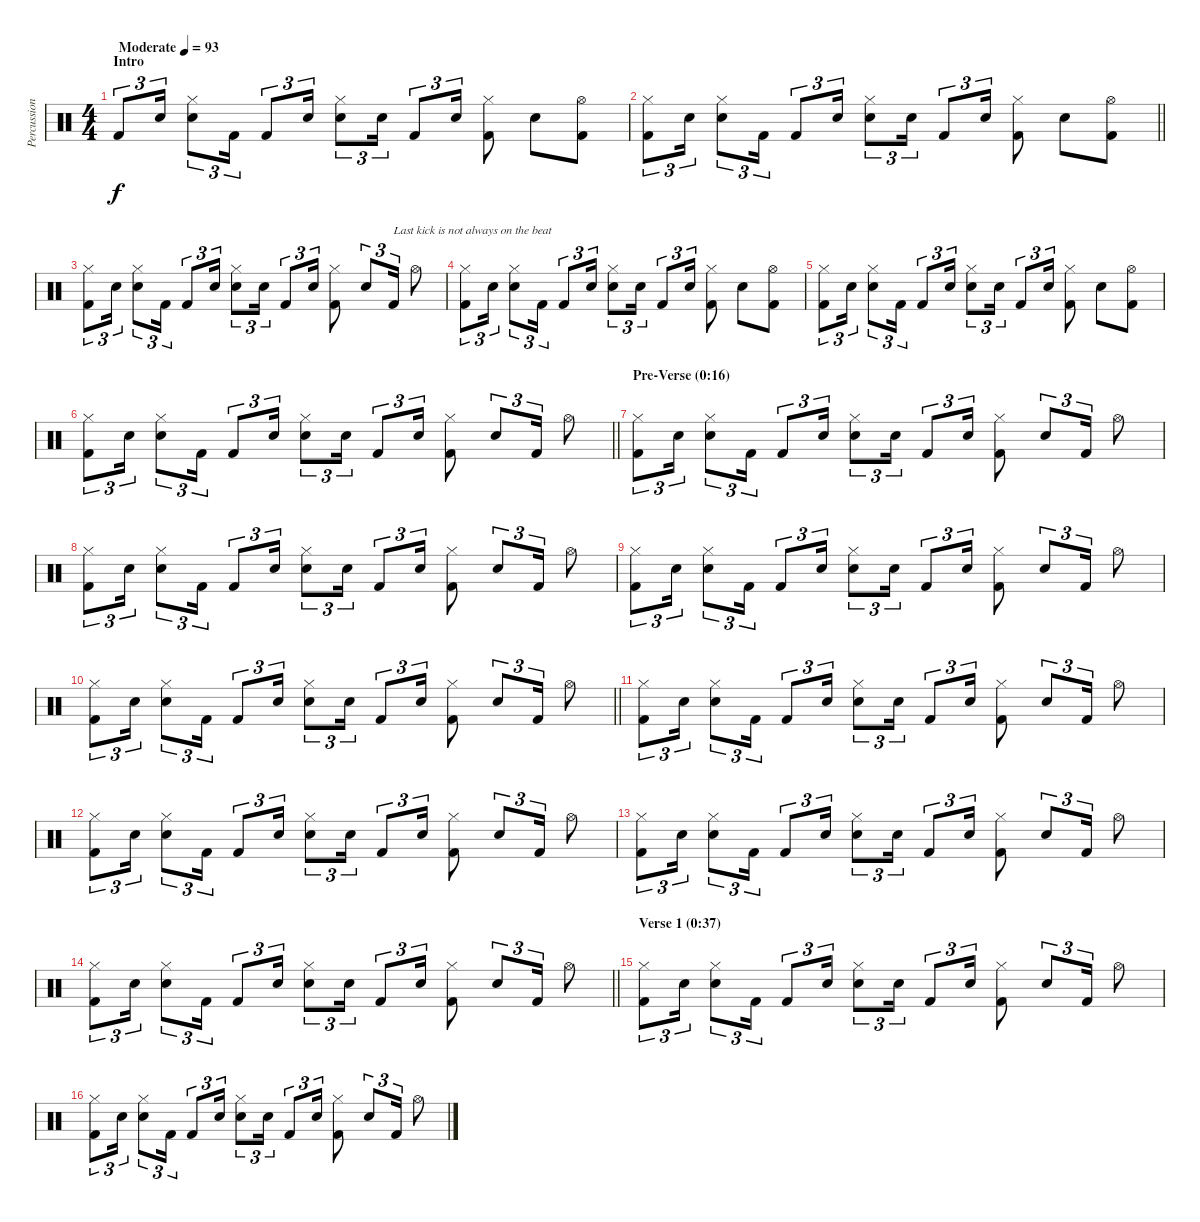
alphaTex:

\track ("Percussion" "Percussion") {instrument percussion}
\staff {score}
\articulation defaults
\ts (4 4)
\section ("" "Intro")
\tempo (93 "Moderate")
\clef neutral
\ks c "Kick (hit) 2".8{tu (3 2) dy f} "Electric Snare (hit)".16{tu (3 2)}
("Hi-Hat (closed)" "Electric Snare (hit)").8{tu (3 2)} "Kick (hit) 2".16{tu (3 2)} "Kick (hit) 2".8{tu (3 2)} "Electric Snare (hit)".16{tu (3 2)} ("Hi-Hat (closed)" "Electric Snare (hit)").8{tu (3 2)} "Electric Snare (hit)".16{tu (3 2)} "Kick (hit) 2".8{tu (3 2)} "Electric Snare (hit)".16{tu (3 2)} ("Hi-Hat (closed)" "Kick (hit) 2").8 "Electric Snare (hit)".8 ("Hi-Hat (open)" "Kick (hit) 2").8 |
\barLineRight lightlight
("Hi-Hat (closed)" "Kick (hit) 2").8{tu (3 2)} "Electric Snare (hit)".16{tu (3 2)} ("Hi-Hat (closed)" "Electric Snare (hit)").8{tu (3 2)} "Kick (hit) 2".16{tu (3 2)} "Kick (hit) 2".8{tu (3 2)} "Electric Snare (hit)".16{tu (3 2)} ("Hi-Hat (closed)" "Electric Snare (hit)").8{tu (3 2)} "Electric Snare (hit)".16{tu (3 2)} "Kick (hit) 2".8{tu (3 2)} "Electric Snare (hit)".16{tu (3 2)} ("Hi-Hat (closed)" "Kick (hit) 2").8 "Electric Snare (hit)".8 ("Hi-Hat (open)" "Kick (hit) 2").8 |
("Hi-Hat (closed)" "Kick (hit) 2").8{tu (3 2)} "Electric Snare (hit)".16{tu (3 2)} ("Hi-Hat (closed)" "Electric Snare (hit)").8{tu (3 2)} "Kick (hit) 2".16{tu (3 2)} "Kick (hit) 2".8{tu (3 2)} "Electric Snare (hit)".16{tu (3 2)} ("Hi-Hat (closed)" "Electric Snare (hit)").8{tu (3 2)} "Electric Snare (hit)".16{tu (3 2)} "Kick (hit) 2".8{tu (3 2)} "Electric Snare (hit)".16{tu (3 2)} ("Hi-Hat (closed)" "Kick (hit) 2").8 "Electric Snare (hit)".8{tu (3 2)} "Kick (hit) 2".16{tu (3 2) txt "Last kick is not always on the beat"} "Hi-Hat (open)".8 |
("Hi-Hat (closed)" "Kick (hit) 2").8{tu (3 2)} "Electric Snare (hit)".16{tu (3 2)} ("Hi-Hat (closed)" "Electric Snare (hit)").8{tu (3 2)} "Kick (hit) 2".16{tu (3 2)} "Kick (hit) 2".8{tu (3 2)} "Electric Snare (hit)".16{tu (3 2)} ("Hi-Hat (closed)" "Electric Snare (hit)").8{tu (3 2)} "Electric Snare (hit)".16{tu (3 2)} "Kick (hit) 2".8{tu (3 2)} "Electric Snare (hit)".16{tu (3 2)} ("Hi-Hat (closed)" "Kick (hit) 2").8 "Electric Snare (hit)".8 ("Hi-Hat (open)" "Kick (hit) 2").8 |
("Hi-Hat (closed)" "Kick (hit) 2").8{tu (3 2)} "Electric Snare (hit)".16{tu (3 2)} ("Hi-Hat (closed)" "Electric Snare (hit)").8{tu (3 2)} "Kick (hit) 2".16{tu (3 2)} "Kick (hit) 2".8{tu (3 2)} "Electric Snare (hit)".16{tu (3 2)} ("Hi-Hat (closed)" "Electric Snare (hit)").8{tu (3 2)} "Electric Snare (hit)".16{tu (3 2)} "Kick (hit) 2".8{tu (3 2)} "Electric Snare (hit)".16{tu (3 2)} ("Hi-Hat (closed)" "Kick (hit) 2").8 "Electric Snare (hit)".8 ("Hi-Hat (open)" "Kick (hit) 2").8 |
\barLineRight lightlight
("Hi-Hat (closed)" "Kick (hit) 2").8{tu (3 2)} "Electric Snare (hit)".16{tu (3 2)} ("Hi-Hat (closed)" "Electric Snare (hit)").8{tu (3 2)} "Kick (hit) 2".16{tu (3 2)} "Kick (hit) 2".8{tu (3 2)} "Electric Snare (hit)".16{tu (3 2)} ("Hi-Hat (closed)" "Electric Snare (hit)").8{tu (3 2)} "Electric Snare (hit)".16{tu (3 2)} "Kick (hit) 2".8{tu (3 2)} "Electric Snare (hit)".16{tu (3 2)} ("Hi-Hat (closed)" "Kick (hit) 2").8 "Electric Snare (hit)".8{tu (3 2)} "Kick (hit) 2".16{tu (3 2)} "Hi-Hat (open)".8 |
\section ("" "Pre-Verse (0:16)")
("Hi-Hat (closed)" "Kick (hit) 2").8{tu (3 2)} "Electric Snare (hit)".16{tu (3 2)} ("Hi-Hat (closed)" "Electric Snare (hit)").8{tu (3 2)} "Kick (hit) 2".16{tu (3 2)} "Kick (hit) 2".8{tu (3 2)} "Electric Snare (hit)".16{tu (3 2)} ("Hi-Hat (closed)" "Electric Snare (hit)").8{tu (3 2)} "Electric Snare (hit)".16{tu (3 2)} "Kick (hit) 2".8{tu (3 2)} "Electric Snare (hit)".16{tu (3 2)} ("Hi-Hat (closed)" "Kick (hit) 2").8 "Electric Snare (hit)".8{tu (3 2)} "Kick (hit) 2".16{tu (3 2)} "Hi-Hat (open)".8 |
("Hi-Hat (closed)" "Kick (hit) 2").8{tu (3 2)} "Electric Snare (hit)".16{tu (3 2)} ("Hi-Hat (closed)" "Electric Snare (hit)").8{tu (3 2)} "Kick (hit) 2".16{tu (3 2)} "Kick (hit) 2".8{tu (3 2)} "Electric Snare (hit)".16{tu (3 2)} ("Hi-Hat (closed)" "Electric Snare (hit)").8{tu (3 2)} "Electric Snare (hit)".16{tu (3 2)} "Kick (hit) 2".8{tu (3 2)} "Electric Snare (hit)".16{tu (3 2)} ("Hi-Hat (closed)" "Kick (hit) 2").8 "Electric Snare (hit)".8{tu (3 2)} "Kick (hit) 2".16{tu (3 2)} "Hi-Hat (open)".8 |
("Hi-Hat (closed)" "Kick (hit) 2").8{tu (3 2)} "Electric Snare (hit)".16{tu (3 2)} ("Hi-Hat (closed)" "Electric Snare (hit)").8{tu (3 2)} "Kick (hit) 2".16{tu (3 2)} "Kick (hit) 2".8{tu (3 2)} "Electric Snare (hit)".16{tu (3 2)} ("Hi-Hat (closed)" "Electric Snare (hit)").8{tu (3 2)} "Electric Snare (hit)".16{tu (3 2)} "Kick (hit) 2".8{tu (3 2)} "Electric Snare (hit)".16{tu (3 2)} ("Hi-Hat (closed)" "Kick (hit) 2").8 "Electric Snare (hit)".8{tu (3 2)} "Kick (hit) 2".16{tu (3 2)} "Hi-Hat (open)".8 |
\barLineRight lightlight
("Hi-Hat (closed)" "Kick (hit) 2").8{tu (3 2)} "Electric Snare (hit)".16{tu (3 2)} ("Hi-Hat (closed)" "Electric Snare (hit)").8{tu (3 2)} "Kick (hit) 2".16{tu (3 2)} "Kick (hit) 2".8{tu (3 2)} "Electric Snare (hit)".16{tu (3 2)} ("Hi-Hat (closed)" "Electric Snare (hit)").8{tu (3 2)} "Electric Snare (hit)".16{tu (3 2)} "Kick (hit) 2".8{tu (3 2)} "Electric Snare (hit)".16{tu (3 2)} ("Hi-Hat (closed)" "Kick (hit) 2").8 "Electric Snare (hit)".8{tu (3 2)} "Kick (hit) 2".16{tu (3 2)} "Hi-Hat (open)".8 |
("Hi-Hat (closed)" "Kick (hit) 2").8{tu (3 2)} "Electric Snare (hit)".16{tu (3 2)} ("Hi-Hat (closed)" "Electric Snare (hit)").8{tu (3 2)} "Kick (hit) 2".16{tu (3 2)} "Kick (hit) 2".8{tu (3 2)} "Electric Snare (hit)".16{tu (3 2)} ("Hi-Hat (closed)" "Electric Snare (hit)").8{tu (3 2)} "Electric Snare (hit)".16{tu (3 2)} "Kick (hit) 2".8{tu (3 2)} "Electric Snare (hit)".16{tu (3 2)} ("Hi-Hat (closed)" "Kick (hit) 2").8 "Electric Snare (hit)".8{tu (3 2)} "Kick (hit) 2".16{tu (3 2)} "Hi-Hat (open)".8 |
("Hi-Hat (closed)" "Kick (hit) 2").8{tu (3 2)} "Electric Snare (hit)".16{tu (3 2)} ("Hi-Hat (closed)" "Electric Snare (hit)").8{tu (3 2)} "Kick (hit) 2".16{tu (3 2)} "Kick (hit) 2".8{tu (3 2)} "Electric Snare (hit)".16{tu (3 2)} ("Hi-Hat (closed)" "Electric Snare (hit)").8{tu (3 2)} "Electric Snare (hit)".16{tu (3 2)} "Kick (hit) 2".8{tu (3 2)} "Electric Snare (hit)".16{tu (3 2)} ("Hi-Hat (closed)" "Kick (hit) 2").8 "Electric Snare (hit)".8{tu (3 2)} "Kick (hit) 2".16{tu (3 2)} "Hi-Hat (open)".8 |
("Hi-Hat (closed)" "Kick (hit) 2").8{tu (3 2)} "Electric Snare (hit)".16{tu (3 2)} ("Hi-Hat (closed)" "Electric Snare (hit)").8{tu (3 2)} "Kick (hit) 2".16{tu (3 2)} "Kick (hit) 2".8{tu (3 2)} "Electric Snare (hit)".16{tu (3 2)} ("Hi-Hat (closed)" "Electric Snare (hit)").8{tu (3 2)} "Electric Snare (hit)".16{tu (3 2)} "Kick (hit) 2".8{tu (3 2)} "Electric Snare (hit)".16{tu (3 2)} ("Hi-Hat (closed)" "Kick (hit) 2").8 "Electric Snare (hit)".8{tu (3 2)} "Kick (hit) 2".16{tu (3 2)} "Hi-Hat (open)".8 |
\barLineRight lightlight
("Hi-Hat (closed)" "Kick (hit) 2").8{tu (3 2)} "Electric Snare (hit)".16{tu (3 2)} ("Hi-Hat (closed)" "Electric Snare (hit)").8{tu (3 2)} "Kick (hit) 2".16{tu (3 2)} "Kick (hit) 2".8{tu (3 2)} "Electric Snare (hit)".16{tu (3 2)} ("Hi-Hat (closed)" "Electric Snare (hit)").8{tu (3 2)} "Electric Snare (hit)".16{tu (3 2)} "Kick (hit) 2".8{tu (3 2)} "Electric Snare (hit)".16{tu (3 2)} ("Hi-Hat (closed)" "Kick (hit) 2").8 "Electric Snare (hit)".8{tu (3 2)} "Kick (hit) 2".16{tu (3 2)} "Hi-Hat (open)".8 |
\section ("" "Verse 1 (0:37)")
("Hi-Hat (closed)" "Kick (hit) 2").8{tu (3 2)} "Electric Snare (hit)".16{tu (3 2)} ("Hi-Hat (closed)" "Electric Snare (hit)").8{tu (3 2)} "Kick (hit) 2".16{tu (3 2)} "Kick (hit) 2".8{tu (3 2)} "Electric Snare (hit)".16{tu (3 2)} ("Hi-Hat (closed)" "Electric Snare (hit)").8{tu (3 2)} "Electric Snare (hit)".16{tu (3 2)} "Kick (hit) 2".8{tu (3 2)} "Electric Snare (hit)".16{tu (3 2)} ("Hi-Hat (closed)" "Kick (hit) 2").8 "Electric Snare (hit)".8{tu (3 2)} "Kick (hit) 2".16{tu (3 2)} "Hi-Hat (open)".8 |
("Hi-Hat (closed)" "Kick (hit) 2").8{tu (3 2)} "Electric Snare (hit)".16{tu (3 2)} ("Hi-Hat (closed)" "Electric Snare (hit)").8{tu (3 2)} "Kick (hit) 2".16{tu (3 2)} "Kick (hit) 2".8{tu (3 2)} "Electric Snare (hit)".16{tu (3 2)} ("Hi-Hat (closed)" "Electric Snare (hit)").8{tu (3 2)} "Electric Snare (hit)".16{tu (3 2)} "Kick (hit) 2".8{tu (3 2)} "Electric Snare (hit)".16{tu (3 2)} ("Hi-Hat (closed)" "Kick (hit) 2").8 "Electric Snare (hit)".8{tu (3 2)} "Kick (hit) 2".16{tu (3 2)} "Hi-Hat (open)".8
